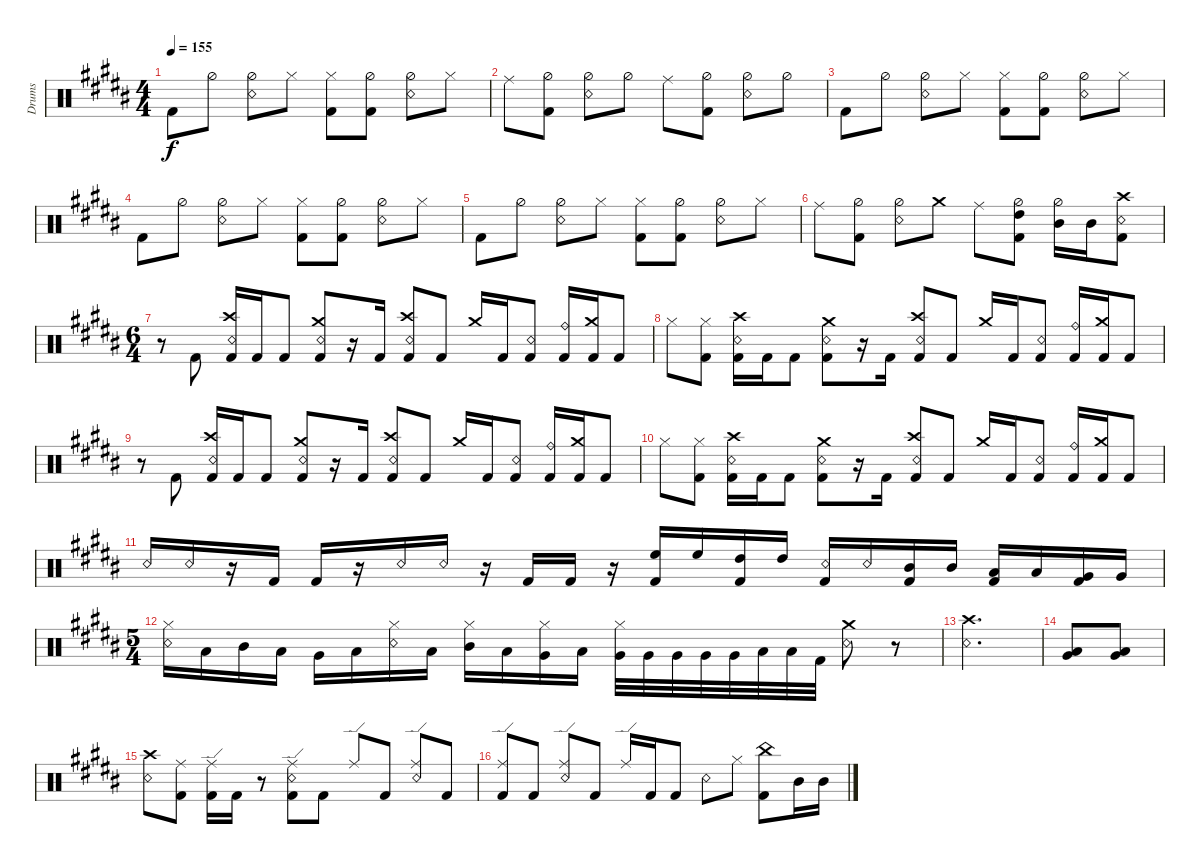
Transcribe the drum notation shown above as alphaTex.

\bracketExtendMode groupsimilarinstruments
\otherSystemsTrackNameOrientation horizontal
\track ("Drumkit" "Drums") {instrument percussion}
\staff {score}
\articulation defaults
\ts (4 4)
\tempo 155
\clef neutral
\ks b "Kick (hit) 2"{acc bb}.8{dy f beam Down} "Hi-Hat (half)"{acc bb}.8{beam Down}
("Hi-Hat (half)"{acc bb} "Snare (rim shot)"{acc bb}).8{beam Down} "Hi-Hat (closed)"{acc bb}.8{beam Down} ("Kick (hit) 2"{acc bb} "Hi-Hat (closed)"{acc bb}).8{beam Down} ("Hi-Hat (half)"{acc bb} "Kick (hit) 2"{acc bb}).8{beam Down} ("Snare (rim shot)"{acc bb} "Hi-Hat (half)"{acc bb}).8{beam Down} "Hi-Hat (closed)"{acc bb}.8{beam Down} |
"Ride (middle)"{acc bb}.8{beam Down} ("Kick (hit) 2"{acc bb} "Hi-Hat (half)"{acc bb}).8{beam Down} ("Snare (rim shot)"{acc bb} "Hi-Hat (half)"{acc bb}).8{beam Down} "Hi-Hat (half)"{acc bb}.8{beam Down} "Ride (middle)"{acc bb}.8{beam Down} ("Kick (hit) 2"{acc bb} "Hi-Hat (half)"{acc bb}).8{beam Down} ("Snare (rim shot)"{acc bb} "Hi-Hat (half)"{acc bb}).8{beam Down} "Hi-Hat (half)"{acc bb}.8{beam Down} |
"Kick (hit) 2"{acc bb}.8{beam Down} "Hi-Hat (half)"{acc bb}.8{beam Down} ("Hi-Hat (half)"{acc bb} "Snare (rim shot)"{acc bb}).8{beam Down} "Hi-Hat (closed)"{acc bb}.8{beam Down} ("Kick (hit) 2"{acc bb} "Hi-Hat (closed)"{acc bb}).8{beam Down} ("Hi-Hat (half)"{acc bb} "Kick (hit) 2"{acc bb}).8{beam Down} ("Snare (rim shot)"{acc bb} "Hi-Hat (half)"{acc bb}).8{beam Down} "Hi-Hat (closed)"{acc bb}.8{beam Down} |
"Kick (hit) 2"{acc bb}.8{beam Down} "Hi-Hat (half)"{acc bb}.8{beam Down} ("Hi-Hat (half)"{acc bb} "Snare (rim shot)"{acc bb}).8{beam Down} "Hi-Hat (closed)"{acc bb}.8{beam Down} ("Kick (hit) 2"{acc bb} "Hi-Hat (closed)"{acc bb}).8{beam Down} ("Hi-Hat (half)"{acc bb} "Kick (hit) 2"{acc bb}).8{beam Down} ("Snare (rim shot)"{acc bb} "Hi-Hat (half)"{acc bb}).8{beam Down} "Hi-Hat (closed)"{acc bb}.8{beam Down} |
"Kick (hit) 2"{acc bb}.8{beam Down} "Hi-Hat (half)"{acc bb}.8{beam Down} ("Hi-Hat (half)"{acc bb} "Snare (rim shot)"{acc bb}).8{beam Down} "Hi-Hat (closed)"{acc bb}.8{beam Down} ("Kick (hit) 2"{acc bb} "Hi-Hat (closed)"{acc bb}).8{beam Down} ("Hi-Hat (half)"{acc bb} "Kick (hit) 2"{acc bb}).8{beam Down} ("Snare (rim shot)"{acc bb} "Hi-Hat (half)"{acc bb}).8{beam Down} "Hi-Hat (closed)"{acc bb}.8{beam Down} |
"Ride (middle)"{acc bb}.8{beam Down} ("Kick (hit) 2"{acc bb} "Hi-Hat (half)"{acc bb}).8{beam Down} ("Snare (rim shot)"{acc bb} "Hi-Hat (half)"{acc bb}).8{beam Down} "Crash medium (hit)"{acc bb}.8{beam Down} "Ride (middle)"{acc bb}.8{beam Down} ("Kick (hit) 2"{acc bb} "Hi-Hat (half)"{acc bb} "High Tom (hit)"{acc bb}).8{beam Down} ("Hi-Hat (half)"{acc bb} "Mid Tom (hit)"{acc bb}).16{beam Down} "Mid Tom (hit)"{acc bb}.16{beam Down} ("Snare (rim shot)"{acc bb} "Kick (hit) 2"{acc bb} "Crash high (hit)"{acc bb}).8{beam Down} |
\ts (6 4)
r.8{beam Down} "Kick (hit) 2"{acc bb}.8{beam Up} ("Kick (hit) 2"{acc bb} "Crash high (hit)"{acc bb} "Snare (rim shot)"{acc bb}).16{beam Up} "Kick (hit) 2"{acc bb}.16{beam Up} "Kick (hit) 2"{acc bb}.8{beam Up} ("Kick (hit) 2"{acc bb} "Crash medium (hit)"{acc bb} "Snare (rim shot)"{acc bb}).8{beam Up} r.16{beam Up} "Kick (hit) 2"{acc bb}.16{beam Up} ("Kick (hit) 2"{acc bb} "Crash high (hit)"{acc bb} "Snare (rim shot)"{acc bb}).8{beam Up} "Kick (hit) 2"{acc bb}.8{beam Up} "Crash medium (hit)"{acc bb}.16{beam Up} "Kick (hit) 2"{acc bb}.16{beam Up} ("Kick (hit) 2"{acc bb} "Snare (rim shot)"{acc bb}).8{beam Up} ("Kick (hit) 2"{acc bb} "Ride (bell)"{acc bb}).16{beam Up} ("Kick (hit) 2"{acc bb} "Crash medium (hit)"{acc bb}).16{beam Up} "Kick (hit) 2"{acc bb}.8{beam Up} |
"Hi-Hat (closed)"{acc bb}.8{beam Down} ("Kick (hit) 2"{acc bb} "Hi-Hat (closed)"{acc bb}).8{beam Down} ("Kick (hit) 2"{acc bb} "Crash high (hit)"{acc bb} "Snare (rim shot)"{acc bb}).16{beam Down} "Kick (hit) 2"{acc bb}.16{beam Down} "Kick (hit) 2"{acc bb}.8{beam Down} ("Kick (hit) 2"{acc bb} "Crash medium (hit)"{acc bb} "Snare (rim shot)"{acc bb}).8{beam Down} r.16{beam Down} "Kick (hit) 2"{acc bb}.16{beam Down} ("Kick (hit) 2"{acc bb} "Crash high (hit)"{acc bb} "Snare (rim shot)"{acc bb}).8{beam Up} "Kick (hit) 2"{acc bb}.8{beam Up} "Crash medium (hit)"{acc bb}.16{beam Up} "Kick (hit) 2"{acc bb}.16{beam Up} ("Kick (hit) 2"{acc bb} "Snare (rim shot)"{acc bb}).8{beam Up} ("Kick (hit) 2"{acc bb} "Ride (bell)"{acc bb}).16{beam Up} ("Kick (hit) 2"{acc bb} "Crash medium (hit)"{acc bb}).16{beam Up} "Kick (hit) 2"{acc bb}.8{beam Up} |
r.8{beam Down} "Kick (hit) 2"{acc bb}.8{beam Up} ("Kick (hit) 2"{acc bb} "Crash high (hit)"{acc bb} "Snare (rim shot)"{acc bb}).16{beam Up} "Kick (hit) 2"{acc bb}.16{beam Up} "Kick (hit) 2"{acc bb}.8{beam Up} ("Kick (hit) 2"{acc bb} "Crash medium (hit)"{acc bb} "Snare (rim shot)"{acc bb}).8{beam Up} r.16{beam Up} "Kick (hit) 2"{acc bb}.16{beam Up} ("Kick (hit) 2"{acc bb} "Crash high (hit)"{acc bb} "Snare (rim shot)"{acc bb}).8{beam Up} "Kick (hit) 2"{acc bb}.8{beam Up} "Crash medium (hit)"{acc bb}.16{beam Up} "Kick (hit) 2"{acc bb}.16{beam Up} ("Kick (hit) 2"{acc bb} "Snare (rim shot)"{acc bb}).8{beam Up} ("Kick (hit) 2"{acc bb} "Ride (bell)"{acc bb}).16{beam Up} ("Kick (hit) 2"{acc bb} "Crash medium (hit)"{acc bb}).16{beam Up} "Kick (hit) 2"{acc bb}.8{beam Up} |
"Hi-Hat (closed)"{acc bb}.8{beam Down} ("Kick (hit) 2"{acc bb} "Hi-Hat (closed)"{acc bb}).8{beam Down} ("Kick (hit) 2"{acc bb} "Crash high (hit)"{acc bb} "Snare (rim shot)"{acc bb}).16{beam Down} "Kick (hit) 2"{acc bb}.16{beam Down} "Kick (hit) 2"{acc bb}.8{beam Down} ("Kick (hit) 2"{acc bb} "Crash medium (hit)"{acc bb} "Snare (rim shot)"{acc bb}).8{beam Down} r.16{beam Down} "Kick (hit) 2"{acc bb}.16{beam Down} ("Kick (hit) 2"{acc bb} "Crash high (hit)"{acc bb} "Snare (rim shot)"{acc bb}).8{beam Up} "Kick (hit) 2"{acc bb}.8{beam Up} "Crash medium (hit)"{acc bb}.16{beam Up} "Kick (hit) 2"{acc bb}.16{beam Up} ("Kick (hit) 2"{acc bb} "Snare (rim shot)"{acc bb}).8{beam Up} ("Kick (hit) 2"{acc bb} "Ride (bell)"{acc bb}).16{beam Up} ("Kick (hit) 2"{acc bb} "Crash medium (hit)"{acc bb}).16{beam Up} "Kick (hit) 2"{acc bb}.8{beam Up} |
"Snare (rim shot)"{acc bb}.16{beam Up} "Snare (rim shot)"{acc bb}.16{beam Up} r.16{beam Up} "Kick (hit) 2"{acc bb}.16{beam Up} "Kick (hit) 2"{acc bb}.16{beam Up} r.16{beam Up} "Snare (rim shot)"{acc bb}.16{beam Up} "Snare (rim shot)"{acc bb}.16{beam Up} r.16{beam Up} "Kick (hit) 2"{acc bb}.16{beam Up} "Kick (hit) 2"{acc bb}.16{beam Up} r.16{beam Up} ("High Floor Tom (hit)"{acc bb} "Kick (hit) 2"{acc bb}).16{beam Up} "High Floor Tom (hit)"{acc bb}.16{beam Up} ("High Tom (hit)"{acc bb} "Kick (hit) 2"{acc bb}).16{beam Up} "High Tom (hit)"{acc bb}.16{beam Up} ("Snare (rim shot)"{acc bb} "Kick (hit) 2"{acc bb}).16{beam Up} "Snare (rim shot)"{acc bb}.16{beam Up} ("Mid Tom (hit)"{acc bb} "Kick (hit) 2"{acc bb}).16{beam Up} "Mid Tom (hit)"{acc bb}.16{beam Up} ("Low Tom (hit)"{acc bb} "Kick (hit) 2"{acc bb}).16{beam Up} "Low Tom (hit)"{acc bb}.16{beam Up} ("Very Low Tom (hit)"{acc bb} "Kick (hit) 2"{acc bb}).16{beam Up} "Very Low Tom (hit)"{acc bb}.16{beam Up} |
\ts (5 4)
("Snare (rim shot)"{acc bb} "Hi-Hat (closed)"{acc bb}).16{beam Down} "Low Tom (hit)"{acc bb}.16{beam Down} "Mid Tom (hit)"{acc bb}.16{beam Down} "Low Tom (hit)"{acc bb}.16{beam Down} "Very Low Tom (hit)"{acc bb}.16{beam Down} "Low Tom (hit)"{acc bb}.16{beam Down} ("Snare (rim shot)"{acc bb} "Hi-Hat (closed)"{acc bb}).16{beam Down} "Low Tom (hit)"{acc bb}.16{beam Down} ("Mid Tom (hit)"{acc bb} "Hi-Hat (closed)"{acc bb}).16{beam Down} "Low Tom (hit)"{acc bb}.16{beam Down} ("Very Low Tom (hit)"{acc bb} "Hi-Hat (closed)"{acc bb}).16{beam Down} "Low Tom (hit)"{acc bb}.16{beam Down} ("Very Low Tom (hit)"{acc bb} "Hi-Hat (closed)"{acc bb}).32{beam Down} "Very Low Tom (hit)"{acc bb}.32{beam Down} "Very Low Tom (hit)"{acc bb}.32{beam Down} "Very Low Tom (hit)"{acc bb}.32{beam Down} "Very Low Tom (hit)"{acc bb}.32{beam Down} "Low Tom (hit)"{acc bb}.32{beam Down} "Low Tom (hit)"{acc bb}.32{beam Down} "Kick (hit) 2"{acc bb}.32{beam Down} ("Crash medium (hit)"{acc bb} "Snare (rim shot)"{acc bb}).8{beam Down} r.8{beam Down} |
("Crash high (hit)"{acc bb} "Snare (rim shot)"{acc bb}).2{d beam Down} |
("Very Low Tom (hit)"{acc bb} "Low Tom (hit)"{acc bb}).8{beam Up} ("Low Tom (hit)"{acc bb} "Very Low Tom (hit)"{acc bb}).8{beam Up} |
("Crash high (hit)"{acc bb} "Snare (rim shot)"{acc bb}).8{beam Down} ("Kick (hit) 2"{acc bb} "Ride (middle)"{acc bb}).8{beam Down} ("Kick (hit) 2"{acc bb} "Ride (edge)"{acc bb}).16{beam Down} "Kick (hit) 2"{acc bb}.16{beam Down} r.8{beam Down} ("Kick (hit) 2"{acc bb} "Snare (rim shot)"{acc bb} "Ride (edge)"{acc bb}).8{beam Down} "Kick (hit) 2"{acc bb}.8{beam Down} "Ride (edge)"{acc bb}.8{beam Up} "Kick (hit) 2"{acc bb}.8{beam Up} ("Snare (rim shot)"{acc bb} "Ride (edge)"{acc bb}).8{beam Up} "Kick (hit) 2"{acc bb}.8{beam Up} |
("Kick (hit) 2"{acc bb} "Ride (edge)"{acc bb}).8{beam Up} "Kick (hit) 2"{acc bb}.8{beam Up} ("Snare (rim shot)"{acc bb} "Ride (edge)"{acc bb}).8{beam Up} "Kick (hit) 2"{acc bb}.8{beam Up} "Ride (edge)"{acc bb}.16{beam Up} "Kick (hit) 2"{acc bb}.16{beam Up} "Kick (hit) 2"{acc bb}.8{beam Up} "Snare (rim shot)"{acc bb}.8{beam Down} "Hi-Hat (closed)"{acc bb}.8{beam Down} ("Kick (hit) 2"{acc bb} "China (hit)"{acc bb}).8{beam Down} "Mid Tom (hit)"{acc bb}.16{beam Down} "Mid Tom (hit)"{acc bb}.16{beam Down}
